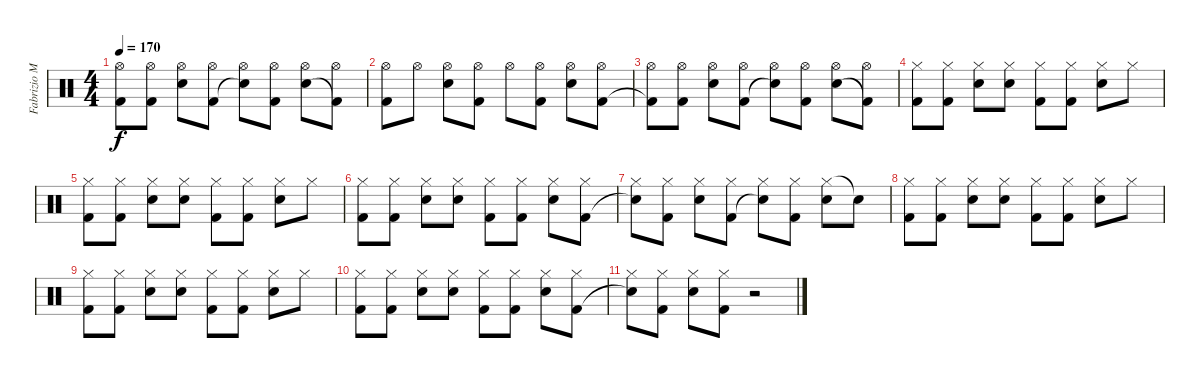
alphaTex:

\track ("Fabrizio Moretti" "Fabrizio M") {instrument percussion}
\staff {score}
\articulation defaults
\ts (4 4)
\tempo 170
\clef neutral
\ks c
("Hi-Hat (open)" "Kick (hit) 2"{t}).8{dy f} ("Hi-Hat (open)" "Kick (hit) 2").8 ("Hi-Hat (open)" "Electric Snare (hit)").8 ("Hi-Hat (open)" "Kick (hit) 2").8 ("Hi-Hat (open)" "Snare (hit)"{t}).8 ("Hi-Hat (open)" "Kick (hit) 2").8 ("Hi-Hat (open)" "Electric Snare (hit)").8 ("Hi-Hat (open)" "Kick (hit) 2"{t}).8 |
("Hi-Hat (open)" "Kick (hit) 2").8 "Hi-Hat (open)".8 ("Hi-Hat (open)" "Electric Snare (hit)").8 ("Hi-Hat (open)" "Kick (hit) 2").8 "Hi-Hat (open)".8 ("Hi-Hat (open)" "Kick (hit) 2").8 ("Hi-Hat (open)" "Electric Snare (hit)").8 ("Hi-Hat (open)" "Kick (hit) 2").8 |
("Hi-Hat (open)" "Kick (hit) 2"{t}).8 ("Hi-Hat (open)" "Kick (hit) 2").8 ("Hi-Hat (open)" "Electric Snare (hit)").8 ("Hi-Hat (open)" "Kick (hit) 2").8 ("Hi-Hat (open)" "Snare (hit)"{t}).8 ("Hi-Hat (open)" "Kick (hit) 2").8 ("Hi-Hat (open)" "Electric Snare (hit)").8 ("Hi-Hat (open)" "Kick (hit) 2"{t}).8 |
("Hi-Hat (closed)" "Kick (hit) 2").8 ("Hi-Hat (closed)" "Kick (hit) 2").8 ("Hi-Hat (closed)" "Electric Snare (hit)").8 ("Hi-Hat (closed)" "Electric Snare (hit)").8 ("Hi-Hat (closed)" "Kick (hit) 2").8 ("Hi-Hat (closed)" "Kick (hit) 2").8 ("Hi-Hat (closed)" "Electric Snare (hit)").8 "Hi-Hat (closed)".8 |
("Hi-Hat (closed)" "Kick (hit) 2").8 ("Hi-Hat (closed)" "Kick (hit) 2").8 ("Hi-Hat (closed)" "Electric Snare (hit)").8 ("Hi-Hat (closed)" "Electric Snare (hit)").8 ("Hi-Hat (closed)" "Kick (hit) 2").8 ("Hi-Hat (closed)" "Kick (hit) 2").8 ("Hi-Hat (closed)" "Electric Snare (hit)").8 "Hi-Hat (closed)".8 |
("Hi-Hat (closed)" "Kick (hit) 2").8 ("Hi-Hat (closed)" "Kick (hit) 2").8 ("Hi-Hat (closed)" "Electric Snare (hit)").8 ("Hi-Hat (closed)" "Electric Snare (hit)").8 ("Hi-Hat (closed)" "Kick (hit) 2").8 ("Hi-Hat (closed)" "Kick (hit) 2").8 ("Hi-Hat (closed)" "Electric Snare (hit)").8 ("Hi-Hat (closed)" "Kick (hit) 2").8 |
("Hi-Hat (closed)" "Snare (hit)"{t}).8 ("Hi-Hat (closed)" "Kick (hit) 2").8 ("Hi-Hat (closed)" "Electric Snare (hit)").8 ("Hi-Hat (closed)" "Kick (hit) 2").8 ("Hi-Hat (closed)" "Snare (hit)"{t}).8 ("Hi-Hat (closed)" "Kick (hit) 2").8 ("Hi-Hat (closed)" "Electric Snare (hit)").8 "Snare (hit)"{t}.8 |
("Hi-Hat (closed)" "Kick (hit) 2").8 ("Hi-Hat (closed)" "Kick (hit) 2").8 ("Hi-Hat (closed)" "Electric Snare (hit)").8 ("Hi-Hat (closed)" "Electric Snare (hit)").8 ("Hi-Hat (closed)" "Kick (hit) 2").8 ("Hi-Hat (closed)" "Kick (hit) 2").8 ("Hi-Hat (closed)" "Electric Snare (hit)").8 "Hi-Hat (closed)".8 |
("Hi-Hat (closed)" "Kick (hit) 2").8 ("Hi-Hat (closed)" "Kick (hit) 2").8 ("Hi-Hat (closed)" "Electric Snare (hit)").8 ("Hi-Hat (closed)" "Electric Snare (hit)").8 ("Hi-Hat (closed)" "Kick (hit) 2").8 ("Hi-Hat (closed)" "Kick (hit) 2").8 ("Hi-Hat (closed)" "Electric Snare (hit)").8 "Hi-Hat (closed)".8 |
("Hi-Hat (closed)" "Kick (hit) 2").8 ("Hi-Hat (closed)" "Kick (hit) 2").8 ("Hi-Hat (closed)" "Electric Snare (hit)").8 ("Hi-Hat (closed)" "Electric Snare (hit)").8 ("Hi-Hat (closed)" "Kick (hit) 2").8 ("Hi-Hat (closed)" "Kick (hit) 2").8 ("Hi-Hat (closed)" "Electric Snare (hit)").8 ("Hi-Hat (closed)" "Kick (hit) 2").8 |
("Hi-Hat (closed)" "Snare (hit)"{t}).8 ("Hi-Hat (closed)" "Kick (hit) 2").8 ("Hi-Hat (closed)" "Electric Snare (hit)").8 ("Hi-Hat (closed)" "Kick (hit) 2").8 r.2
